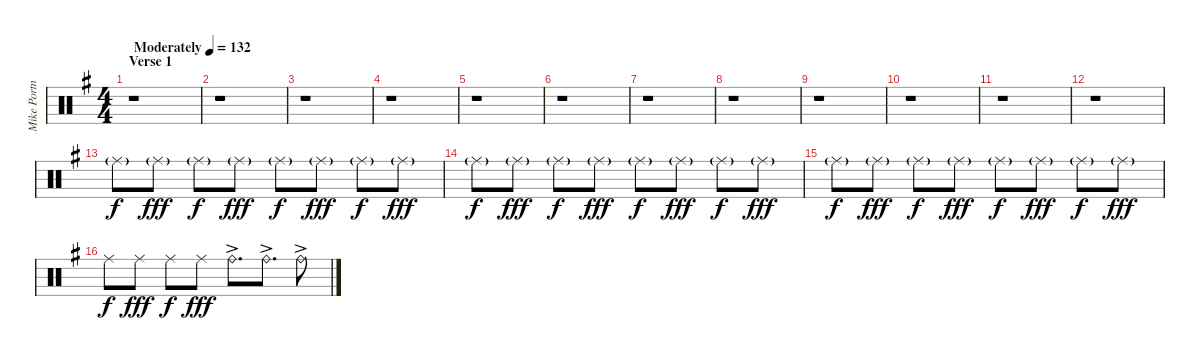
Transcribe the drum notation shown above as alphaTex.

\track ("Mike Portnoy" "Mike Portn") {instrument percussion}
\staff {score}
\articulation defaults
\ts (4 4)
\section ("" "Verse 1")
\tempo (132 "Moderately")
\clef neutral
\ks eminor
r.1{dy f} |
r.1 |
r.1 |
r.1 |
r.1 |
r.1 |
r.1 |
r.1 |
r.1 |
r.1 |
r.1 |
r.1 |
"Ride (middle)"{g}.8 "Ride (middle)"{g}.8{dy fff} "Ride (middle)"{g}.8{dy f} "Ride (middle)"{g}.8{dy fff} "Ride (middle)"{g}.8{dy f} "Ride (middle)"{g}.8{dy fff} "Ride (middle)"{g}.8{dy f} "Ride (middle)"{g}.8{dy fff} |
"Ride (middle)"{g}.8{dy f} "Ride (middle)"{g}.8{dy fff} "Ride (middle)"{g}.8{dy f} "Ride (middle)"{g}.8{dy fff} "Ride (middle)"{g}.8{dy f} "Ride (middle)"{g}.8{dy fff} "Ride (middle)"{g}.8{dy f} "Ride (middle)"{g}.8{dy fff} |
"Ride (middle)"{g}.8{dy f} "Ride (middle)"{g}.8{dy fff} "Ride (middle)"{g}.8{dy f} "Ride (middle)"{g}.8{dy fff} "Ride (middle)"{g}.8{dy f} "Ride (middle)"{g}.8{dy fff} "Ride (middle)"{g}.8{dy f} "Ride (middle)"{g}.8{dy fff} |
"Ride (middle)".8{dy f} "Ride (middle)".8{dy fff} "Ride (middle)".8{dy f} "Ride (middle)".8{dy fff} "Ride (bell)"{ac}.8{d} "Ride (bell)"{ac}.8{d} "Ride (bell)"{ac}.8
